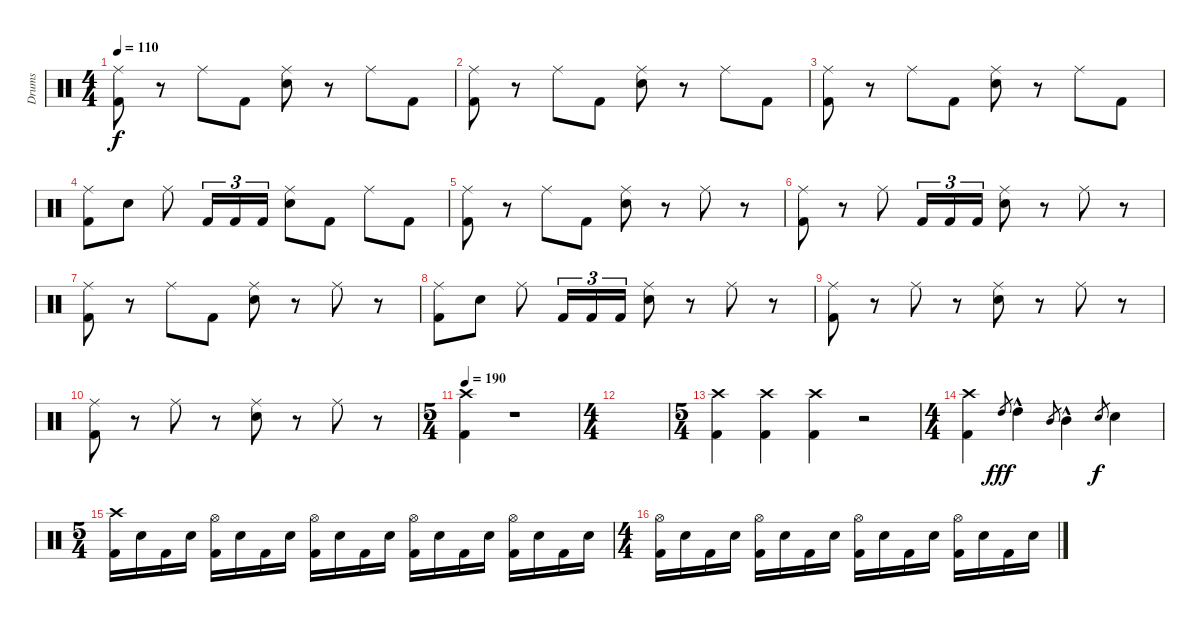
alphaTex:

\track ("Drums" "Drums") {instrument percussion}
\staff {score}
\articulation defaults
\ts (4 4)
\tempo 110
\clef neutral
\ks aminor
("Kick (hit) 2" "Ride (middle)").8{dy f} r.8 "Ride (middle)".8 "Kick (hit) 2".8 ("Electric Snare (hit)" "Ride (middle)").8 r.8 "Ride (middle)".8 "Kick (hit) 2".8 |
("Kick (hit) 2" "Ride (middle)").8 r.8 "Ride (middle)".8 "Kick (hit) 2".8 ("Electric Snare (hit)" "Ride (middle)").8 r.8 "Ride (middle)".8 "Kick (hit) 2".8 |
("Kick (hit) 2" "Ride (middle)").8 r.8 "Ride (middle)".8 "Kick (hit) 2".8 ("Electric Snare (hit)" "Ride (middle)").8 r.8 "Ride (middle)".8 "Kick (hit) 2".8 |
("Kick (hit) 2" "Ride (middle)").8 "Electric Snare (hit)".8 "Ride (middle)".8 "Kick (hit) 2".16{tu (3 2)} "Kick (hit) 2".16{tu (3 2)} "Kick (hit) 2".16{tu (3 2)} ("Electric Snare (hit)" "Ride (middle)").8 "Kick (hit) 2".8 "Ride (middle)".8 "Kick (hit) 2".8 |
("Kick (hit) 2" "Ride (middle)").8 r.8 "Ride (middle)".8 "Kick (hit) 2".8 ("Electric Snare (hit)" "Ride (middle)").8 r.8 "Ride (middle)".8 r.8 |
("Kick (hit) 2" "Ride (middle)").8 r.8 "Ride (middle)".8 "Kick (hit) 2".16{tu (3 2)} "Kick (hit) 2".16{tu (3 2)} "Kick (hit) 2".16{tu (3 2)} ("Electric Snare (hit)" "Ride (middle)").8 r.8 "Ride (middle)".8 r.8 |
("Kick (hit) 2" "Ride (middle)").8 r.8 "Ride (middle)".8 "Kick (hit) 2".8 ("Electric Snare (hit)" "Ride (middle)").8 r.8 "Ride (middle)".8 r.8 |
("Kick (hit) 2" "Ride (middle)").8 "Electric Snare (hit)".8 "Ride (middle)".8 "Kick (hit) 2".16{tu (3 2)} "Kick (hit) 2".16{tu (3 2)} "Kick (hit) 2".16{tu (3 2)} ("Electric Snare (hit)" "Ride (middle)").8 r.8 "Ride (middle)".8 r.8 |
("Kick (hit) 2" "Ride (middle)").8 r.8 "Ride (middle)".8 r.8 ("Electric Snare (hit)" "Ride (middle)").8 r.8 "Ride (middle)".8 r.8 |
("Kick (hit) 2" "Ride (middle)").8 r.8 "Ride (middle)".8 r.8 ("Electric Snare (hit)" "Ride (middle)").8 r.8 "Ride (middle)".8 r.8 |
\ts (5 4)
\tempo 190
("Kick (hit) 2" "Crash high (hit)").4 r.1 |
\ts (4 4)
|
\ts (5 4)
("Kick (hit) 2" "Crash high (hit)").4 ("Kick (hit) 2" "Crash high (hit)").4 ("Kick (hit) 2" "Crash high (hit)").4 r.2 |
\ts (4 4)
("Kick (hit) 2" "Crash high (hit)").4 "High Tom (hit)".8{gr dy fff} "High Tom (hit)"{hac}.4 "Mid Tom (hit)".8{gr} "Mid Tom (hit)"{hac}.4 "Electric Snare (hit)".8{gr dy f} "Electric Snare (hit)".4 |
\ts (5 4)
("Kick (hit) 2" "Crash high (hit)").16 "Electric Snare (hit)".16 "Kick (hit) 2".16 "Electric Snare (hit)".16 ("Kick (hit) 2" "Hi-Hat (open)").16 "Electric Snare (hit)".16 "Kick (hit) 2".16 "Electric Snare (hit)".16 ("Kick (hit) 2" "Hi-Hat (open)").16 "Electric Snare (hit)".16 "Kick (hit) 2".16 "Electric Snare (hit)".16 ("Kick (hit) 2" "Hi-Hat (open)").16 "Electric Snare (hit)".16 "Kick (hit) 2".16 "Electric Snare (hit)".16 ("Kick (hit) 2" "Hi-Hat (open)").16 "Electric Snare (hit)".16 "Kick (hit) 2".16 "Electric Snare (hit)".16 |
\ts (4 4)
("Kick (hit) 2" "Hi-Hat (open)").16 "Electric Snare (hit)".16 "Kick (hit) 2".16 "Electric Snare (hit)".16 ("Kick (hit) 2" "Hi-Hat (open)").16 "Electric Snare (hit)".16 "Kick (hit) 2".16 "Electric Snare (hit)".16 ("Kick (hit) 2" "Hi-Hat (open)").16 "Electric Snare (hit)".16 "Kick (hit) 2".16 "Electric Snare (hit)".16 ("Kick (hit) 2" "Hi-Hat (open)").16 "Electric Snare (hit)".16 "Kick (hit) 2".16 "Electric Snare (hit)".16
